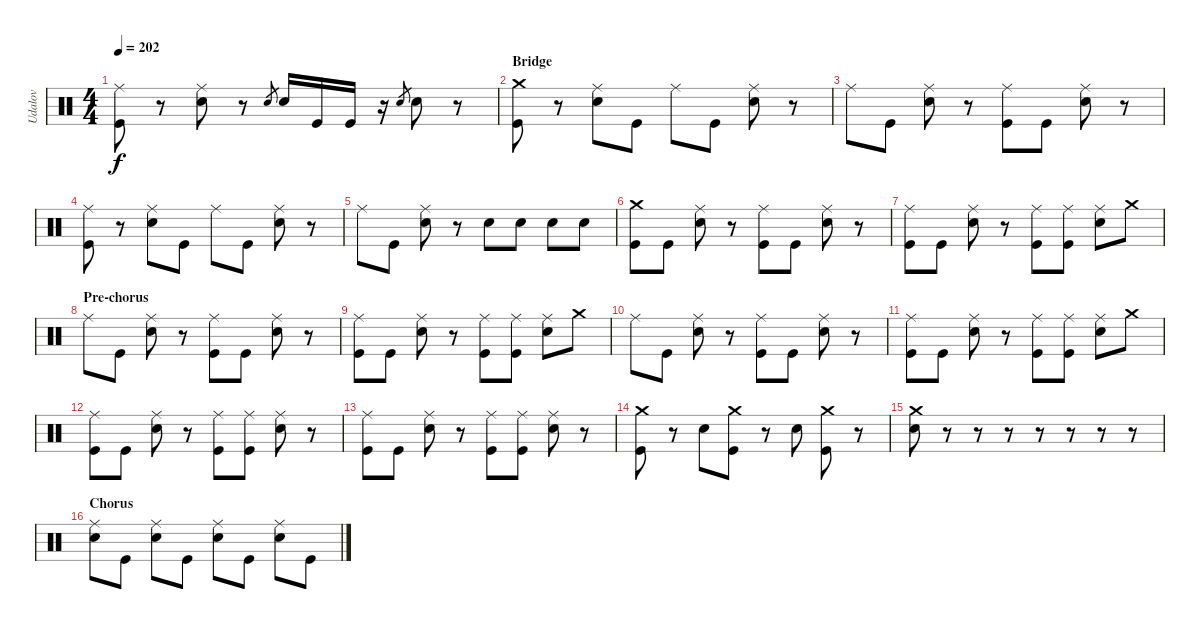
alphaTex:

\track ("Udalov" "Udalov") {instrument percussion}
\staff {score}
\articulation defaults
\ts (4 4)
\tempo 202
\clef neutral
\ks c
("Kick (hit)" "Ride (middle)").8{dy f} r.8 ("Electric Snare (hit)" "Ride (middle)").8 r.8 "Electric Snare (hit)".8{gr} "Electric Snare (hit)".16 "Kick (hit)".16 "Kick (hit)".16 r.16 "Electric Snare (hit)".8{gr} "Electric Snare (hit)".8 r.8 |
\section ("" "Bridge")
("Kick (hit)" "Crash medium (hit)").8 r.8 ("Electric Snare (hit)" "Ride (middle)").8 "Kick (hit)".8 "Ride (middle)".8 "Kick (hit)".8 ("Electric Snare (hit)" "Ride (middle)").8 r.8 |
"Ride (middle)".8 "Kick (hit)".8 ("Electric Snare (hit)" "Ride (middle)").8 r.8 ("Kick (hit)" "Ride (middle)").8 "Kick (hit)".8 ("Electric Snare (hit)" "Ride (middle)").8 r.8 |
("Kick (hit)" "Ride (middle)").8 r.8 ("Electric Snare (hit)" "Ride (middle)").8 "Kick (hit)".8 "Ride (middle)".8 "Kick (hit)".8 ("Electric Snare (hit)" "Ride (middle)").8 r.8 |
"Ride (middle)".8 "Kick (hit)".8 ("Electric Snare (hit)" "Ride (middle)").8 r.8 "Electric Snare (hit)".8 "Electric Snare (hit)".8 "Electric Snare (hit)".8 "Electric Snare (hit)".8 |
("Kick (hit)" "Crash medium (hit)").8 "Kick (hit)".8 ("Electric Snare (hit)" "Ride (middle)").8 r.8 ("Kick (hit)" "Ride (middle)").8 "Kick (hit)".8 ("Electric Snare (hit)" "Ride (middle)").8 r.8 |
("Kick (hit)" "Ride (middle)").8 "Kick (hit)".8 ("Electric Snare (hit)" "Ride (middle)").8 r.8 ("Kick (hit)" "Ride (middle)").8 ("Kick (hit)" "Ride (middle)").8 ("Electric Snare (hit)" "Ride (middle)").8 "Crash medium (hit)".8 |
\section ("" "Pre-chorus")
"Ride (middle)".8 "Kick (hit)".8 ("Electric Snare (hit)" "Ride (middle)").8 r.8 ("Kick (hit)" "Ride (middle)").8 "Kick (hit)".8 ("Electric Snare (hit)" "Ride (middle)").8 r.8 |
("Kick (hit)" "Ride (middle)").8 "Kick (hit)".8 ("Electric Snare (hit)" "Ride (middle)").8 r.8 ("Kick (hit)" "Ride (middle)").8 ("Kick (hit)" "Ride (middle)").8 ("Electric Snare (hit)" "Ride (middle)").8 "Crash medium (hit)".8 |
"Ride (middle)".8 "Kick (hit)".8 ("Electric Snare (hit)" "Ride (middle)").8 r.8 ("Kick (hit)" "Ride (middle)").8 "Kick (hit)".8 ("Electric Snare (hit)" "Ride (middle)").8 r.8 |
("Kick (hit)" "Ride (middle)").8 "Kick (hit)".8 ("Electric Snare (hit)" "Ride (middle)").8 r.8 ("Kick (hit)" "Ride (middle)").8 ("Kick (hit)" "Ride (middle)").8 ("Electric Snare (hit)" "Ride (middle)").8 "Crash medium (hit)".8 |
("Kick (hit)" "Ride (middle)").8 "Kick (hit)".8 ("Electric Snare (hit)" "Ride (middle)").8 r.8 ("Kick (hit)" "Ride (middle)").8 ("Kick (hit)" "Ride (middle)").8 ("Electric Snare (hit)" "Ride (middle)").8 r.8 |
("Kick (hit)" "Ride (middle)").8 "Kick (hit)".8 ("Electric Snare (hit)" "Ride (middle)").8 r.8 ("Kick (hit)" "Ride (middle)").8 ("Kick (hit)" "Ride (middle)").8 ("Electric Snare (hit)" "Ride (middle)").8 r.8 |
("Kick (hit)" "Crash medium (hit)").8 r.8 "Electric Snare (hit)".8 ("Kick (hit)" "Crash medium (hit)").8 r.8 "Electric Snare (hit)".8 ("Kick (hit)" "Crash medium (hit)").8 r.8 |
("Electric Snare (hit)" "Crash medium (hit)").8 r.8 r.8 r.8 r.8 r.8 r.8 r.8 |
\section ("" "Chorus")
("Electric Snare (hit)" "Ride (middle)").8 "Kick (hit)".8 ("Electric Snare (hit)" "Ride (middle)").8 "Kick (hit)".8 ("Electric Snare (hit)" "Ride (middle)").8 "Kick (hit)".8 ("Electric Snare (hit)" "Ride (middle)").8 "Kick (hit)".8
